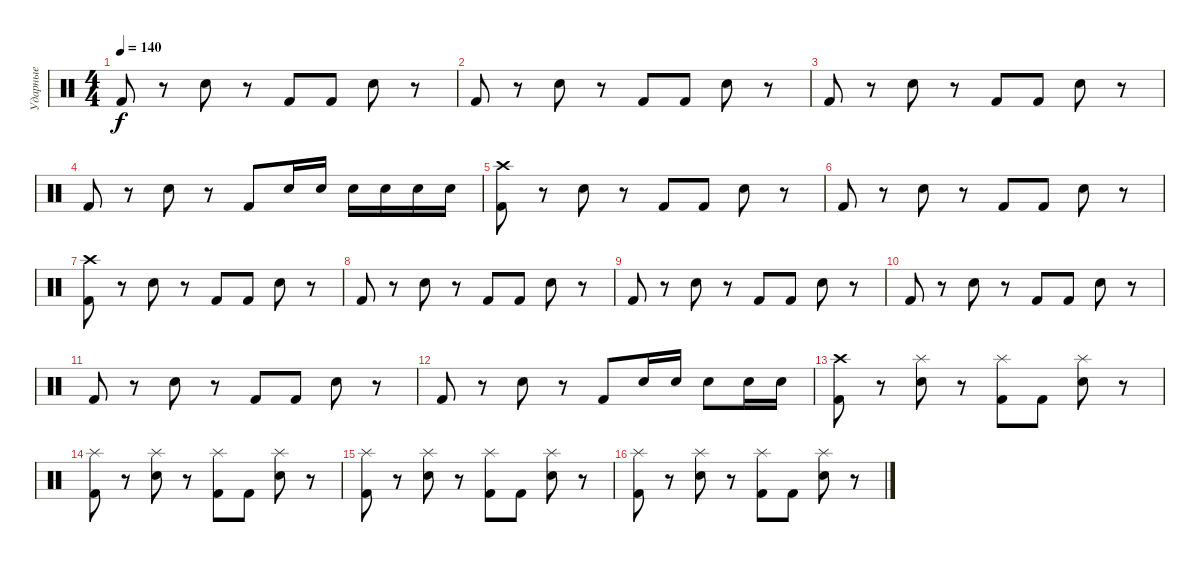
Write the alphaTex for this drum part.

\track ("Ударные" "Ударные") {instrument percussion}
\staff {score}
\articulation defaults
\ts (4 4)
\tempo 140
\clef neutral
\ks c "Kick (hit) 2".8{dy f}
r.8 "Electric Snare (hit)".8 r.8 "Kick (hit) 2".8 "Kick (hit) 2".8 "Electric Snare (hit)".8 r.8 |
"Kick (hit) 2".8 r.8 "Electric Snare (hit)".8 r.8 "Kick (hit) 2".8 "Kick (hit) 2".8 "Electric Snare (hit)".8 r.8 |
"Kick (hit) 2".8 r.8 "Electric Snare (hit)".8 r.8 "Kick (hit) 2".8 "Kick (hit) 2".8 "Electric Snare (hit)".8 r.8 |
"Kick (hit) 2".8 r.8 "Electric Snare (hit)".8 r.8 "Kick (hit) 2".8 "Electric Snare (hit)".16 "Electric Snare (hit)".16 "Electric Snare (hit)".16 "Electric Snare (hit)".16 "Electric Snare (hit)".16 "Electric Snare (hit)".16 |
("Crash high (hit)" "Kick (hit) 2").8 r.8 "Electric Snare (hit)".8 r.8 "Kick (hit) 2".8 "Kick (hit) 2".8 "Electric Snare (hit)".8 r.8 |
"Kick (hit) 2".8 r.8 "Electric Snare (hit)".8 r.8 "Kick (hit) 2".8 "Kick (hit) 2".8 "Electric Snare (hit)".8 r.8 |
("Crash high (hit)" "Kick (hit) 2").8 r.8 "Electric Snare (hit)".8 r.8 "Kick (hit) 2".8 "Kick (hit) 2".8 "Electric Snare (hit)".8 r.8 |
"Kick (hit) 2".8 r.8 "Electric Snare (hit)".8 r.8 "Kick (hit) 2".8 "Kick (hit) 2".8 "Electric Snare (hit)".8 r.8 |
"Kick (hit) 2".8 r.8 "Electric Snare (hit)".8 r.8 "Kick (hit) 2".8 "Kick (hit) 2".8 "Electric Snare (hit)".8 r.8 |
"Kick (hit) 2".8 r.8 "Electric Snare (hit)".8 r.8 "Kick (hit) 2".8 "Kick (hit) 2".8 "Electric Snare (hit)".8 r.8 |
"Kick (hit) 2".8 r.8 "Electric Snare (hit)".8 r.8 "Kick (hit) 2".8 "Kick (hit) 2".8 "Electric Snare (hit)".8 r.8 |
"Kick (hit) 2".8 r.8 "Electric Snare (hit)".8 r.8 "Kick (hit) 2".8 "Electric Snare (hit)".16 "Electric Snare (hit)".16 "Electric Snare (hit)".8 "Electric Snare (hit)".16 "Electric Snare (hit)".16 |
("Crash high (hit)" "Kick (hit) 2").8 r.8 ("Splash (hit)" "Electric Snare (hit)").8 r.8 ("Splash (hit)" "Kick (hit) 2").8 "Kick (hit) 2".8 ("Splash (hit)" "Electric Snare (hit)").8 r.8 |
("Splash (hit)" "Kick (hit) 2").8 r.8 ("Splash (hit)" "Electric Snare (hit)").8 r.8 ("Splash (hit)" "Kick (hit) 2").8 "Kick (hit) 2".8 ("Splash (hit)" "Electric Snare (hit)").8 r.8 |
("Splash (hit)" "Kick (hit) 2").8 r.8 ("Splash (hit)" "Electric Snare (hit)").8 r.8 ("Splash (hit)" "Kick (hit) 2").8 "Kick (hit) 2".8 ("Splash (hit)" "Electric Snare (hit)").8 r.8 |
("Splash (hit)" "Kick (hit) 2").8 r.8 ("Splash (hit)" "Electric Snare (hit)").8 r.8 ("Splash (hit)" "Kick (hit) 2").8 "Kick (hit) 2".8 ("Splash (hit)" "Electric Snare (hit)").8 r.8
